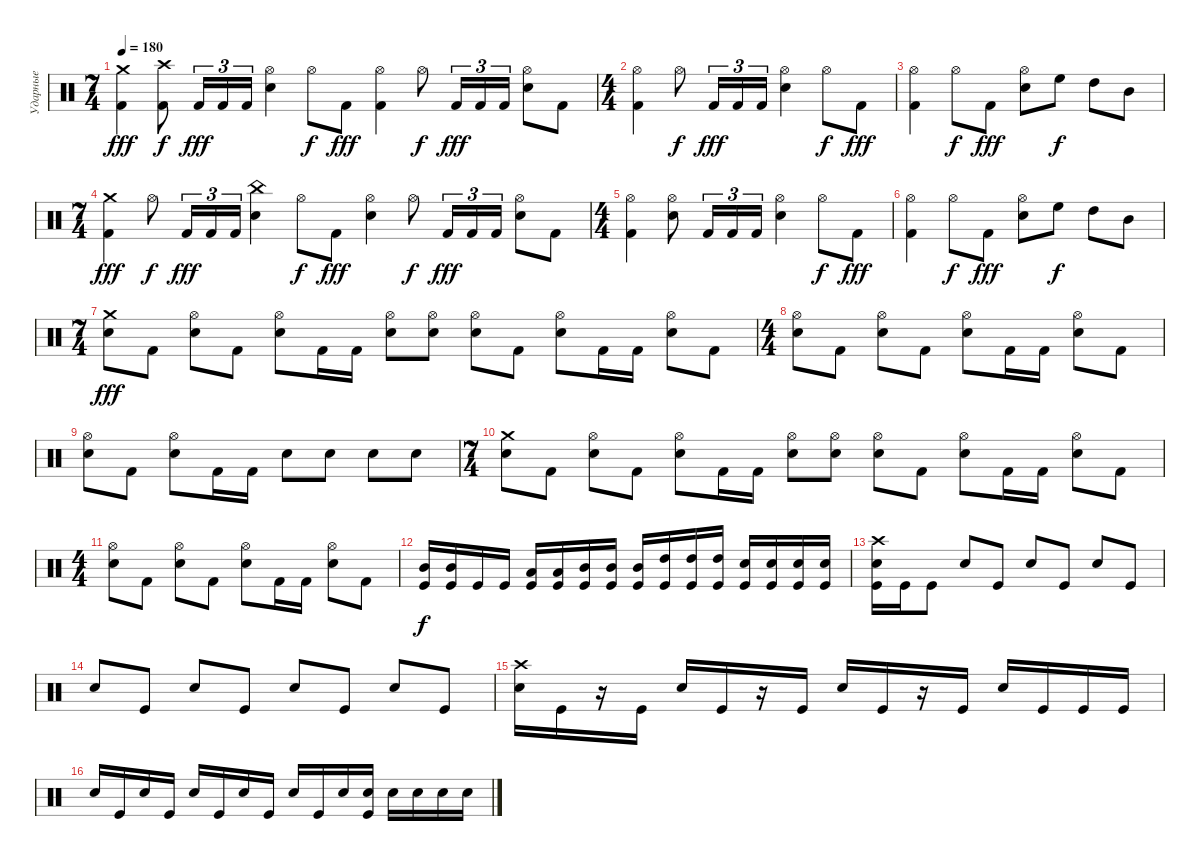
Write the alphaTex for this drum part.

\track ("Ударные" "Ударные") {instrument percussion}
\staff {score}
\articulation defaults
\ts (7 4)
\tempo 180
\clef neutral
\ks c
("Crash medium (hit)" "Kick (hit) 2").4{dy fff} ("Crash high (hit)" "Kick (hit) 2").8{dy f} "Kick (hit) 2".16{tu (3 2) dy fff} "Kick (hit) 2".16{tu (3 2)} "Kick (hit) 2".16{tu (3 2)} ("Hi-Hat (open)" "Electric Snare (hit)").4 "Hi-Hat (open)".8{dy f} "Kick (hit) 2".8{dy fff} ("Hi-Hat (open)" "Kick (hit) 2").4 "Hi-Hat (open)".8{dy f} "Kick (hit) 2".16{tu (3 2) dy fff} "Kick (hit) 2".16{tu (3 2)} "Kick (hit) 2".16{tu (3 2)} ("Hi-Hat (open)" "Electric Snare (hit)").8 "Kick (hit) 2".8 |
\ts (4 4)
("Hi-Hat (open)" "Kick (hit) 2").4 "Hi-Hat (open)".8{dy f} "Kick (hit) 2".16{tu (3 2) dy fff} "Kick (hit) 2".16{tu (3 2)} "Kick (hit) 2".16{tu (3 2)} ("Hi-Hat (open)" "Electric Snare (hit)").4 "Hi-Hat (open)".8{dy f} "Kick (hit) 2".8{dy fff} |
("Hi-Hat (open)" "Kick (hit) 2").4 "Hi-Hat (open)".8{dy f} "Kick (hit) 2".8{dy fff} ("Hi-Hat (open)" "Electric Snare (hit)").8 "High Floor Tom (hit)".8{dy f} "High Tom (hit)".8 "Mid Tom (hit)".8 |
\ts (7 4)
("Crash medium (hit)" "Kick (hit) 2").4{dy fff} "Hi-Hat (open)".8{dy f} "Kick (hit) 2".16{tu (3 2) dy fff} "Kick (hit) 2".16{tu (3 2)} "Kick (hit) 2".16{tu (3 2)} ("China (hit)" "Electric Snare (hit)").4 "Hi-Hat (open)".8{dy f} "Kick (hit) 2".8{dy fff} ("Hi-Hat (open)" "Electric Snare (hit)").4 "Hi-Hat (open)".8{dy f} "Kick (hit) 2".16{tu (3 2) dy fff} "Kick (hit) 2".16{tu (3 2)} "Kick (hit) 2".16{tu (3 2)} ("Hi-Hat (open)" "Electric Snare (hit)").8 "Kick (hit) 2".8 |
\ts (4 4)
("Hi-Hat (open)" "Kick (hit) 2").4 ("Hi-Hat (open)" "Electric Snare (hit)").8 "Kick (hit) 2".16{tu (3 2)} "Kick (hit) 2".16{tu (3 2)} "Kick (hit) 2".16{tu (3 2)} ("Hi-Hat (open)" "Electric Snare (hit)").4 "Hi-Hat (open)".8{dy f} "Kick (hit) 2".8{dy fff} |
("Hi-Hat (open)" "Kick (hit) 2").4 "Hi-Hat (open)".8{dy f} "Kick (hit) 2".8{dy fff} ("Hi-Hat (open)" "Electric Snare (hit)").8 "High Floor Tom (hit)".8{dy f} "High Tom (hit)".8 "Mid Tom (hit)".8 |
\ts (7 4)
("Crash medium (hit)" "Electric Snare (hit)").8{dy fff} "Kick (hit) 2".8 ("Hi-Hat (open)" "Electric Snare (hit)").8 "Kick (hit) 2".8 ("Hi-Hat (open)" "Electric Snare (hit)").8 "Kick (hit) 2".16 "Kick (hit) 2".16 ("Hi-Hat (open)" "Electric Snare (hit)").8 ("Hi-Hat (open)" "Electric Snare (hit)").8 ("Hi-Hat (open)" "Electric Snare (hit)").8 "Kick (hit) 2".8 ("Hi-Hat (open)" "Electric Snare (hit)").8 "Kick (hit) 2".16 "Kick (hit) 2".16 ("Hi-Hat (open)" "Electric Snare (hit)").8 "Kick (hit) 2".8 |
\ts (4 4)
("Hi-Hat (open)" "Electric Snare (hit)").8 "Kick (hit) 2".8 ("Hi-Hat (open)" "Electric Snare (hit)").8 "Kick (hit) 2".8 ("Hi-Hat (open)" "Electric Snare (hit)").8 "Kick (hit) 2".16 "Kick (hit) 2".16 ("Hi-Hat (open)" "Electric Snare (hit)").8 "Kick (hit) 2".8 |
("Hi-Hat (open)" "Electric Snare (hit)").8 "Kick (hit) 2".8 ("Hi-Hat (open)" "Electric Snare (hit)").8 "Kick (hit) 2".16 "Kick (hit) 2".16 "Electric Snare (hit)".8 "Electric Snare (hit)".8 "Electric Snare (hit)".8 "Electric Snare (hit)".8 |
\ts (7 4)
("Crash medium (hit)" "Electric Snare (hit)").8 "Kick (hit) 2".8 ("Hi-Hat (open)" "Electric Snare (hit)").8 "Kick (hit) 2".8 ("Hi-Hat (open)" "Electric Snare (hit)").8 "Kick (hit) 2".16 "Kick (hit) 2".16 ("Hi-Hat (open)" "Electric Snare (hit)").8 ("Hi-Hat (open)" "Electric Snare (hit)").8 ("Hi-Hat (open)" "Electric Snare (hit)").8 "Kick (hit) 2".8 ("Hi-Hat (open)" "Electric Snare (hit)").8 "Kick (hit) 2".16 "Kick (hit) 2".16 ("Hi-Hat (open)" "Electric Snare (hit)").8 "Kick (hit) 2".8 |
\ts (4 4)
("Hi-Hat (open)" "Electric Snare (hit)").8 "Kick (hit) 2".8 ("Hi-Hat (open)" "Electric Snare (hit)").8 "Kick (hit) 2".8 ("Hi-Hat (open)" "Electric Snare (hit)").8 "Kick (hit) 2".16 "Kick (hit) 2".16 ("Hi-Hat (open)" "Electric Snare (hit)").8 "Kick (hit) 2".8 |
("Mid Tom (hit)" "Kick (hit)").16{dy f} ("Mid Tom (hit)" "Kick (hit)").16 "Kick (hit)".16 "Kick (hit)".16 ("Low Tom (hit)" "Kick (hit)").16 ("Low Tom (hit)" "Kick (hit)").16 ("Mid Tom (hit)" "Kick (hit)").16 ("Mid Tom (hit)" "Kick (hit)").16 ("Mid Tom (hit)" "Kick (hit)").16 ("High Tom (hit)" "Kick (hit)").16 ("High Tom (hit)" "Kick (hit)").16 ("High Tom (hit)" "Kick (hit)").16 ("Electric Snare (hit)" "Kick (hit)").16 ("Electric Snare (hit)" "Kick (hit)").16 ("Electric Snare (hit)" "Kick (hit)").16 ("Electric Snare (hit)" "Kick (hit)").16 |
("Crash high (hit)" "Electric Snare (hit)" "Kick (hit)").16 "Kick (hit)".16 "Kick (hit)".8 "Electric Snare (hit)".8 "Kick (hit)".8 "Electric Snare (hit)".8 "Kick (hit)".8 "Electric Snare (hit)".8 "Kick (hit)".8 |
"Electric Snare (hit)".8 "Kick (hit)".8 "Electric Snare (hit)".8 "Kick (hit)".8 "Electric Snare (hit)".8 "Kick (hit)".8 "Electric Snare (hit)".8 "Kick (hit)".8 |
("Crash high (hit)" "Electric Snare (hit)").16 "Kick (hit)".16 r.16 "Kick (hit)".16 "Electric Snare (hit)".16 "Kick (hit)".16 r.16 "Kick (hit)".16 "Electric Snare (hit)".16 "Kick (hit)".16 r.16 "Kick (hit)".16 "Electric Snare (hit)".16 "Kick (hit)".16 "Kick (hit)".16 "Kick (hit)".16 |
"Electric Snare (hit)".16 "Kick (hit)".16 "Electric Snare (hit)".16 "Kick (hit)".16 "Electric Snare (hit)".16 "Kick (hit)".16 "Electric Snare (hit)".16 "Kick (hit)".16 "Electric Snare (hit)".16 "Kick (hit)".16 "Electric Snare (hit)".16 ("Electric Snare (hit)" "Kick (hit)").16 "Electric Snare (hit)".16 "Electric Snare (hit)".16 "Electric Snare (hit)".16 "Electric Snare (hit)".16
